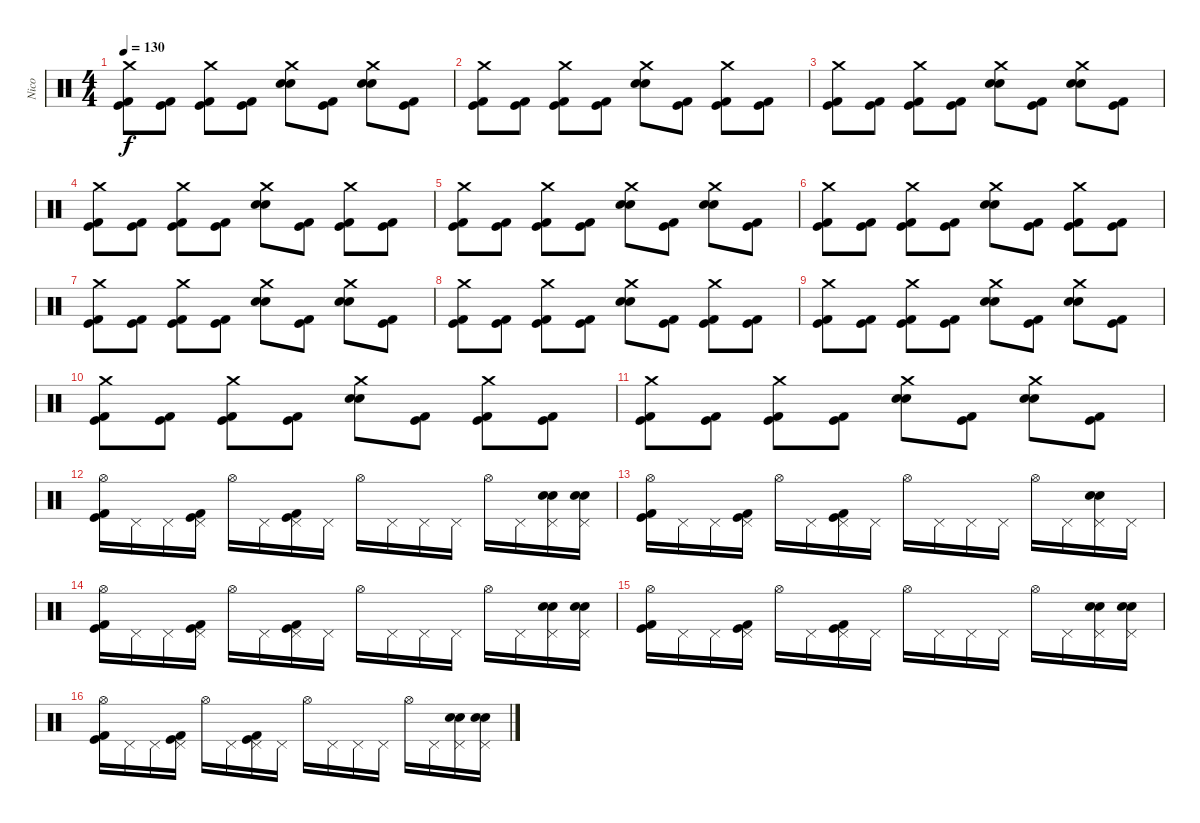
\track ("Nico" "Nico") {instrument percussion}
\staff {score}
\articulation defaults
\ts (4 4)
\tempo 130
\clef neutral
\ks c
("Crash medium (hit)" "Kick (hit) 2" "Kick (hit)").8{dy f} ("Kick (hit) 2" "Kick (hit)").8 ("Crash medium (hit)" "Kick (hit) 2" "Kick (hit)").8 ("Kick (hit)" "Kick (hit) 2").8 ("Crash medium (hit)" "Electric Snare (hit)" "Electric Snare (hit)").8 ("Kick (hit) 2" "Kick (hit)").8 ("Crash medium (hit)" "Electric Snare (hit)" "Electric Snare (hit)").8 ("Kick (hit)" "Kick (hit) 2").8 |
("Crash medium (hit)" "Kick (hit) 2" "Kick (hit)").8 ("Kick (hit) 2" "Kick (hit)").8 ("Crash medium (hit)" "Kick (hit) 2" "Kick (hit)").8 ("Kick (hit)" "Kick (hit) 2").8 ("Crash medium (hit)" "Electric Snare (hit)" "Electric Snare (hit)").8 ("Kick (hit) 2" "Kick (hit)").8 ("Crash medium (hit)" "Kick (hit) 2" "Kick (hit)").8 ("Kick (hit)" "Kick (hit) 2").8 |
("Crash medium (hit)" "Kick (hit) 2" "Kick (hit)").8 ("Kick (hit) 2" "Kick (hit)").8 ("Crash medium (hit)" "Kick (hit) 2" "Kick (hit)").8 ("Kick (hit)" "Kick (hit) 2").8 ("Crash medium (hit)" "Electric Snare (hit)" "Electric Snare (hit)").8 ("Kick (hit) 2" "Kick (hit)").8 ("Crash medium (hit)" "Electric Snare (hit)" "Electric Snare (hit)").8 ("Kick (hit)" "Kick (hit) 2").8 |
("Crash medium (hit)" "Kick (hit) 2" "Kick (hit)").8 ("Kick (hit) 2" "Kick (hit)").8 ("Crash medium (hit)" "Kick (hit) 2" "Kick (hit)").8 ("Kick (hit)" "Kick (hit) 2").8 ("Crash medium (hit)" "Electric Snare (hit)" "Electric Snare (hit)").8 ("Kick (hit) 2" "Kick (hit)").8 ("Crash medium (hit)" "Kick (hit) 2" "Kick (hit)").8 ("Kick (hit)" "Kick (hit) 2").8 |
("Crash medium (hit)" "Kick (hit) 2" "Kick (hit)").8 ("Kick (hit) 2" "Kick (hit)").8 ("Crash medium (hit)" "Kick (hit) 2" "Kick (hit)").8 ("Kick (hit)" "Kick (hit) 2").8 ("Crash medium (hit)" "Electric Snare (hit)" "Electric Snare (hit)").8 ("Kick (hit) 2" "Kick (hit)").8 ("Crash medium (hit)" "Electric Snare (hit)" "Electric Snare (hit)").8 ("Kick (hit)" "Kick (hit) 2").8 |
("Crash medium (hit)" "Kick (hit) 2" "Kick (hit)").8 ("Kick (hit) 2" "Kick (hit)").8 ("Crash medium (hit)" "Kick (hit) 2" "Kick (hit)").8 ("Kick (hit)" "Kick (hit) 2").8 ("Crash medium (hit)" "Electric Snare (hit)" "Electric Snare (hit)").8 ("Kick (hit) 2" "Kick (hit)").8 ("Crash medium (hit)" "Kick (hit) 2" "Kick (hit)").8 ("Kick (hit)" "Kick (hit) 2").8 |
("Crash medium (hit)" "Kick (hit) 2" "Kick (hit)").8 ("Kick (hit) 2" "Kick (hit)").8 ("Crash medium (hit)" "Kick (hit) 2" "Kick (hit)").8 ("Kick (hit)" "Kick (hit) 2").8 ("Crash medium (hit)" "Electric Snare (hit)" "Electric Snare (hit)").8 ("Kick (hit) 2" "Kick (hit)").8 ("Crash medium (hit)" "Electric Snare (hit)" "Electric Snare (hit)").8 ("Kick (hit)" "Kick (hit) 2").8 |
("Crash medium (hit)" "Kick (hit) 2" "Kick (hit)").8 ("Kick (hit) 2" "Kick (hit)").8 ("Crash medium (hit)" "Kick (hit) 2" "Kick (hit)").8 ("Kick (hit)" "Kick (hit) 2").8 ("Crash medium (hit)" "Electric Snare (hit)" "Electric Snare (hit)").8 ("Kick (hit) 2" "Kick (hit)").8 ("Crash medium (hit)" "Kick (hit) 2" "Kick (hit)").8 ("Kick (hit)" "Kick (hit) 2").8 |
("Crash medium (hit)" "Kick (hit) 2" "Kick (hit)").8 ("Kick (hit) 2" "Kick (hit)").8 ("Crash medium (hit)" "Kick (hit) 2" "Kick (hit)").8 ("Kick (hit)" "Kick (hit) 2").8 ("Crash medium (hit)" "Electric Snare (hit)" "Electric Snare (hit)").8 ("Kick (hit) 2" "Kick (hit)").8 ("Crash medium (hit)" "Electric Snare (hit)" "Electric Snare (hit)").8 ("Kick (hit)" "Kick (hit) 2").8 |
("Crash medium (hit)" "Kick (hit) 2" "Kick (hit)").8 ("Kick (hit) 2" "Kick (hit)").8 ("Crash medium (hit)" "Kick (hit) 2" "Kick (hit)").8 ("Kick (hit)" "Kick (hit) 2").8 ("Crash medium (hit)" "Electric Snare (hit)" "Electric Snare (hit)").8 ("Kick (hit) 2" "Kick (hit)").8 ("Crash medium (hit)" "Kick (hit) 2" "Kick (hit)").8 ("Kick (hit)" "Kick (hit) 2").8 |
("Crash medium (hit)" "Kick (hit) 2" "Kick (hit)").8 ("Kick (hit) 2" "Kick (hit)").8 ("Crash medium (hit)" "Kick (hit) 2" "Kick (hit)").8 ("Kick (hit)" "Kick (hit) 2").8 ("Crash medium (hit)" "Electric Snare (hit)" "Electric Snare (hit)").8 ("Kick (hit) 2" "Kick (hit)").8 ("Crash medium (hit)" "Electric Snare (hit)" "Electric Snare (hit)").8 ("Kick (hit)" "Kick (hit) 2").8 |
("Hi-Hat (open)" "Kick (hit) 2" "Kick (hit)").16 "Pedal Hi-Hat (hit)".16 "Pedal Hi-Hat (hit)".16 ("Pedal Hi-Hat (hit)" "Kick (hit) 2" "Kick (hit)").16 "Hi-Hat (open)".16 "Pedal Hi-Hat (hit)".16 ("Pedal Hi-Hat (hit)" "Kick (hit) 2" "Kick (hit)").16 "Pedal Hi-Hat (hit)".16 "Hi-Hat (open)".16 "Pedal Hi-Hat (hit)".16 "Pedal Hi-Hat (hit)".16 "Pedal Hi-Hat (hit)".16 "Hi-Hat (open)".16 "Pedal Hi-Hat (hit)".16 ("Pedal Hi-Hat (hit)" "Electric Snare (hit)" "Electric Snare (hit)").16 ("Pedal Hi-Hat (hit)" "Electric Snare (hit)" "Electric Snare (hit)").16 |
("Hi-Hat (open)" "Kick (hit) 2" "Kick (hit)").16 "Pedal Hi-Hat (hit)".16 "Pedal Hi-Hat (hit)".16 ("Pedal Hi-Hat (hit)" "Kick (hit) 2" "Kick (hit)").16 "Hi-Hat (open)".16 "Pedal Hi-Hat (hit)".16 ("Pedal Hi-Hat (hit)" "Kick (hit) 2" "Kick (hit)").16 "Pedal Hi-Hat (hit)".16 "Hi-Hat (open)".16 "Pedal Hi-Hat (hit)".16 "Pedal Hi-Hat (hit)".16 "Pedal Hi-Hat (hit)".16 "Hi-Hat (open)".16 "Pedal Hi-Hat (hit)".16 ("Pedal Hi-Hat (hit)" "Electric Snare (hit)" "Electric Snare (hit)").16 "Pedal Hi-Hat (hit)".16 |
("Hi-Hat (open)" "Kick (hit) 2" "Kick (hit)").16 "Pedal Hi-Hat (hit)".16 "Pedal Hi-Hat (hit)".16 ("Pedal Hi-Hat (hit)" "Kick (hit) 2" "Kick (hit)").16 "Hi-Hat (open)".16 "Pedal Hi-Hat (hit)".16 ("Pedal Hi-Hat (hit)" "Kick (hit) 2" "Kick (hit)").16 "Pedal Hi-Hat (hit)".16 "Hi-Hat (open)".16 "Pedal Hi-Hat (hit)".16 "Pedal Hi-Hat (hit)".16 "Pedal Hi-Hat (hit)".16 "Hi-Hat (open)".16 "Pedal Hi-Hat (hit)".16 ("Pedal Hi-Hat (hit)" "Electric Snare (hit)" "Electric Snare (hit)").16 ("Pedal Hi-Hat (hit)" "Electric Snare (hit)" "Electric Snare (hit)").16 |
("Hi-Hat (open)" "Kick (hit) 2" "Kick (hit)").16 "Pedal Hi-Hat (hit)".16 "Pedal Hi-Hat (hit)".16 ("Pedal Hi-Hat (hit)" "Kick (hit) 2" "Kick (hit)").16 "Hi-Hat (open)".16 "Pedal Hi-Hat (hit)".16 ("Pedal Hi-Hat (hit)" "Kick (hit) 2" "Kick (hit)").16 "Pedal Hi-Hat (hit)".16 "Hi-Hat (open)".16 "Pedal Hi-Hat (hit)".16 "Pedal Hi-Hat (hit)".16 "Pedal Hi-Hat (hit)".16 "Hi-Hat (open)".16 "Pedal Hi-Hat (hit)".16 ("Pedal Hi-Hat (hit)" "Electric Snare (hit)" "Electric Snare (hit)").16 ("Pedal Hi-Hat (hit)" "Electric Snare (hit)" "Electric Snare (hit)").16 |
("Hi-Hat (open)" "Kick (hit) 2" "Kick (hit)").16 "Pedal Hi-Hat (hit)".16 "Pedal Hi-Hat (hit)".16 ("Pedal Hi-Hat (hit)" "Kick (hit) 2" "Kick (hit)").16 "Hi-Hat (open)".16 "Pedal Hi-Hat (hit)".16 ("Pedal Hi-Hat (hit)" "Kick (hit) 2" "Kick (hit)").16 "Pedal Hi-Hat (hit)".16 "Hi-Hat (open)".16 "Pedal Hi-Hat (hit)".16 "Pedal Hi-Hat (hit)".16 "Pedal Hi-Hat (hit)".16 "Hi-Hat (open)".16 "Pedal Hi-Hat (hit)".16 ("Pedal Hi-Hat (hit)" "Electric Snare (hit)" "Electric Snare (hit)").16 ("Pedal Hi-Hat (hit)" "Electric Snare (hit)" "Electric Snare (hit)").16
